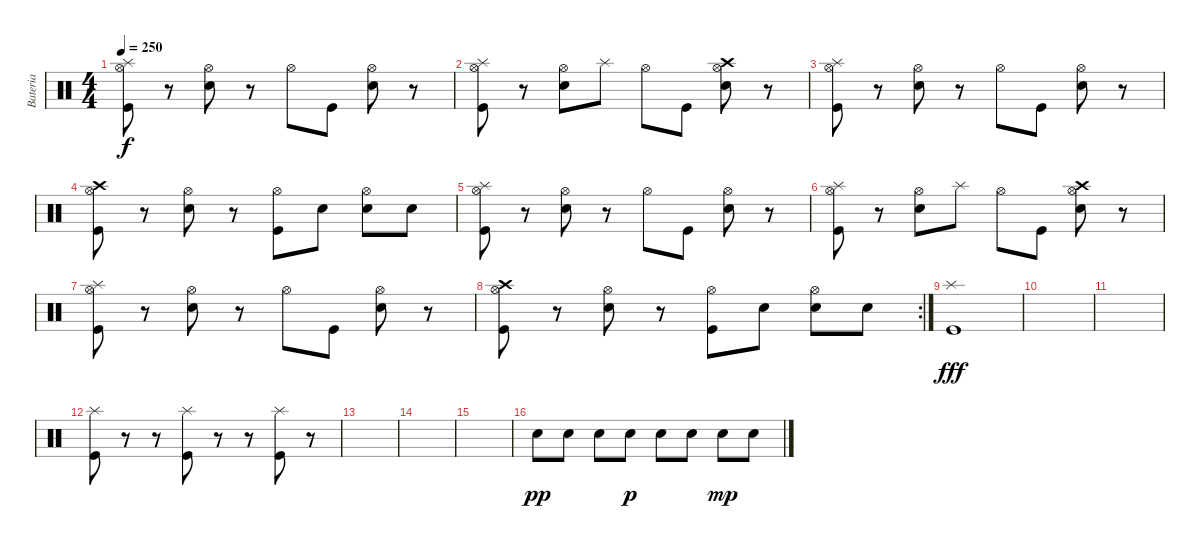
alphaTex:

\track ("Bateria" "Bateria") {instrument percussion}
\staff {score}
\articulation defaults
\ts (4 4)
\tempo 250
\clef neutral
\ks c
("Kick (hit)" "Hi-Hat (open)" "Splash (hit)").8{dy f} r.8 ("Electric Snare (hit)" "Hi-Hat (open)").8 r.8 "Hi-Hat (open)".8 "Kick (hit)".8 ("Electric Snare (hit)" "Hi-Hat (open)").8 r.8 |
("Kick (hit)" "Hi-Hat (open)" "Splash (hit)").8 r.8 ("Electric Snare (hit)" "Hi-Hat (open)").8 "Splash (hit)".8 "Hi-Hat (open)".8 "Kick (hit)".8 ("Electric Snare (hit)" "Hi-Hat (open)" "Crash high (hit)").8 r.8 |
("Kick (hit)" "Hi-Hat (open)" "Splash (hit)").8 r.8 ("Electric Snare (hit)" "Hi-Hat (open)").8 r.8 "Hi-Hat (open)".8 "Kick (hit)".8 ("Electric Snare (hit)" "Hi-Hat (open)").8 r.8 |
("Kick (hit)" "Hi-Hat (open)" "Crash high (hit)").8 r.8 ("Electric Snare (hit)" "Hi-Hat (open)").8 r.8 ("Kick (hit)" "Hi-Hat (open)").8 "Electric Snare (hit)".8 ("Electric Snare (hit)" "Hi-Hat (open)").8 "Electric Snare (hit)".8 |
("Kick (hit)" "Hi-Hat (open)" "Splash (hit)").8 r.8 ("Electric Snare (hit)" "Hi-Hat (open)").8 r.8 "Hi-Hat (open)".8 "Kick (hit)".8 ("Electric Snare (hit)" "Hi-Hat (open)").8 r.8 |
("Kick (hit)" "Hi-Hat (open)" "Splash (hit)").8 r.8 ("Electric Snare (hit)" "Hi-Hat (open)").8 "Splash (hit)".8 "Hi-Hat (open)".8 "Kick (hit)".8 ("Electric Snare (hit)" "Hi-Hat (open)" "Crash high (hit)").8 r.8 |
("Kick (hit)" "Hi-Hat (open)" "Splash (hit)").8 r.8 ("Electric Snare (hit)" "Hi-Hat (open)").8 r.8 "Hi-Hat (open)".8 "Kick (hit)".8 ("Electric Snare (hit)" "Hi-Hat (open)").8 r.8 |
\rc 2
("Kick (hit)" "Hi-Hat (open)" "Crash high (hit)").8 r.8 ("Electric Snare (hit)" "Hi-Hat (open)").8 r.8 ("Kick (hit)" "Hi-Hat (open)").8 "Electric Snare (hit)".8 ("Electric Snare (hit)" "Hi-Hat (open)").8 "Electric Snare (hit)".8 |
("Kick (hit)" "Splash (hit)").1{dy fff} |
|
|
("Kick (hit)" "Splash (hit)").8 r.8 r.8 ("Kick (hit)" "Splash (hit)").8 r.8 r.8 ("Kick (hit)" "Splash (hit)").8 r.8 |
|
|
|
"Electric Snare (hit)".8{dy pp} "Electric Snare (hit)".8 "Electric Snare (hit)".8 "Electric Snare (hit)".8{dy p} "Electric Snare (hit)".8 "Electric Snare (hit)".8 "Electric Snare (hit)".8{dy mp} "Electric Snare (hit)".8
